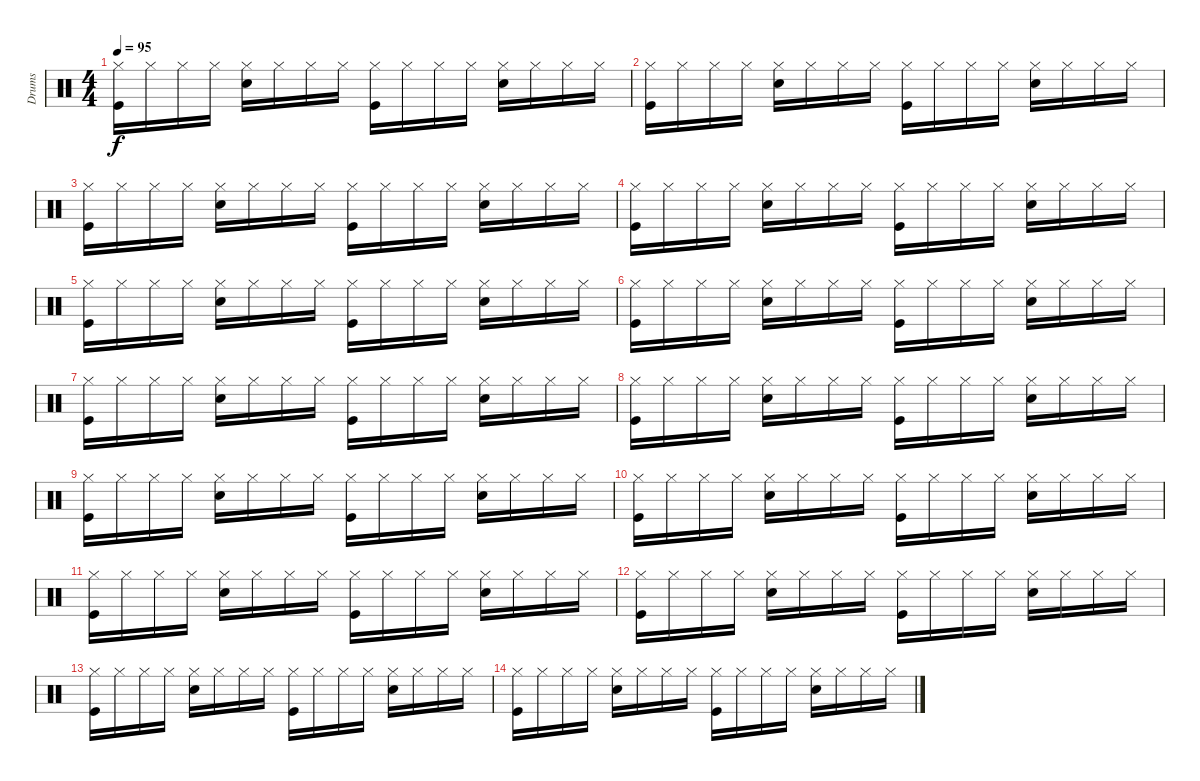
\track ("Drums" "Drums") {instrument percussion}
\staff {score}
\articulation defaults
\ts (4 4)
\tempo 95
\clef neutral
\ks c
("Hi-Hat (closed)" "Kick (hit)").16{dy f} "Hi-Hat (closed)".16 "Hi-Hat (closed)".16 "Hi-Hat (closed)".16 ("Hi-Hat (closed)" "Snare (hit) 2").16 "Hi-Hat (closed)".16 "Hi-Hat (closed)".16 "Hi-Hat (closed)".16 ("Hi-Hat (closed)" "Kick (hit)").16 "Hi-Hat (closed)".16 "Hi-Hat (closed)".16 "Hi-Hat (closed)".16 ("Hi-Hat (closed)" "Snare (hit) 2").16 "Hi-Hat (closed)".16 "Hi-Hat (closed)".16 "Hi-Hat (closed)".16 |
("Hi-Hat (closed)" "Kick (hit)").16 "Hi-Hat (closed)".16 "Hi-Hat (closed)".16 "Hi-Hat (closed)".16 ("Hi-Hat (closed)" "Snare (hit) 2").16 "Hi-Hat (closed)".16 "Hi-Hat (closed)".16 "Hi-Hat (closed)".16 ("Hi-Hat (closed)" "Kick (hit)").16 "Hi-Hat (closed)".16 "Hi-Hat (closed)".16 "Hi-Hat (closed)".16 ("Hi-Hat (closed)" "Snare (hit) 2").16 "Hi-Hat (closed)".16 "Hi-Hat (closed)".16 "Hi-Hat (closed)".16 |
("Hi-Hat (closed)" "Kick (hit)").16 "Hi-Hat (closed)".16 "Hi-Hat (closed)".16 "Hi-Hat (closed)".16 ("Hi-Hat (closed)" "Snare (hit) 2").16 "Hi-Hat (closed)".16 "Hi-Hat (closed)".16 "Hi-Hat (closed)".16 ("Hi-Hat (closed)" "Kick (hit)").16 "Hi-Hat (closed)".16 "Hi-Hat (closed)".16 "Hi-Hat (closed)".16 ("Hi-Hat (closed)" "Snare (hit) 2").16 "Hi-Hat (closed)".16 "Hi-Hat (closed)".16 "Hi-Hat (closed)".16 |
("Hi-Hat (closed)" "Kick (hit)").16 "Hi-Hat (closed)".16 "Hi-Hat (closed)".16 "Hi-Hat (closed)".16 ("Hi-Hat (closed)" "Snare (hit) 2").16 "Hi-Hat (closed)".16 "Hi-Hat (closed)".16 "Hi-Hat (closed)".16 ("Hi-Hat (closed)" "Kick (hit)").16 "Hi-Hat (closed)".16 "Hi-Hat (closed)".16 "Hi-Hat (closed)".16 ("Hi-Hat (closed)" "Snare (hit) 2").16 "Hi-Hat (closed)".16 "Hi-Hat (closed)".16 "Hi-Hat (closed)".16 |
("Hi-Hat (closed)" "Kick (hit)").16 "Hi-Hat (closed)".16 "Hi-Hat (closed)".16 "Hi-Hat (closed)".16 ("Hi-Hat (closed)" "Snare (hit) 2").16 "Hi-Hat (closed)".16 "Hi-Hat (closed)".16 "Hi-Hat (closed)".16 ("Hi-Hat (closed)" "Kick (hit)").16 "Hi-Hat (closed)".16 "Hi-Hat (closed)".16 "Hi-Hat (closed)".16 ("Hi-Hat (closed)" "Snare (hit) 2").16 "Hi-Hat (closed)".16 "Hi-Hat (closed)".16 "Hi-Hat (closed)".16 |
("Hi-Hat (closed)" "Kick (hit)").16 "Hi-Hat (closed)".16 "Hi-Hat (closed)".16 "Hi-Hat (closed)".16 ("Hi-Hat (closed)" "Snare (hit) 2").16 "Hi-Hat (closed)".16 "Hi-Hat (closed)".16 "Hi-Hat (closed)".16 ("Hi-Hat (closed)" "Kick (hit)").16 "Hi-Hat (closed)".16 "Hi-Hat (closed)".16 "Hi-Hat (closed)".16 ("Hi-Hat (closed)" "Snare (hit) 2").16 "Hi-Hat (closed)".16 "Hi-Hat (closed)".16 "Hi-Hat (closed)".16 |
("Hi-Hat (closed)" "Kick (hit)").16 "Hi-Hat (closed)".16 "Hi-Hat (closed)".16 "Hi-Hat (closed)".16 ("Hi-Hat (closed)" "Snare (hit) 2").16 "Hi-Hat (closed)".16 "Hi-Hat (closed)".16 "Hi-Hat (closed)".16 ("Hi-Hat (closed)" "Kick (hit)").16 "Hi-Hat (closed)".16 "Hi-Hat (closed)".16 "Hi-Hat (closed)".16 ("Hi-Hat (closed)" "Snare (hit) 2").16 "Hi-Hat (closed)".16 "Hi-Hat (closed)".16 "Hi-Hat (closed)".16 |
("Hi-Hat (closed)" "Kick (hit)").16 "Hi-Hat (closed)".16 "Hi-Hat (closed)".16 "Hi-Hat (closed)".16 ("Hi-Hat (closed)" "Snare (hit) 2").16 "Hi-Hat (closed)".16 "Hi-Hat (closed)".16 "Hi-Hat (closed)".16 ("Hi-Hat (closed)" "Kick (hit)").16 "Hi-Hat (closed)".16 "Hi-Hat (closed)".16 "Hi-Hat (closed)".16 ("Hi-Hat (closed)" "Snare (hit) 2").16 "Hi-Hat (closed)".16 "Hi-Hat (closed)".16 "Hi-Hat (closed)".16 |
("Hi-Hat (closed)" "Kick (hit)").16 "Hi-Hat (closed)".16 "Hi-Hat (closed)".16 "Hi-Hat (closed)".16 ("Hi-Hat (closed)" "Snare (hit) 2").16 "Hi-Hat (closed)".16 "Hi-Hat (closed)".16 "Hi-Hat (closed)".16 ("Hi-Hat (closed)" "Kick (hit)").16 "Hi-Hat (closed)".16 "Hi-Hat (closed)".16 "Hi-Hat (closed)".16 ("Hi-Hat (closed)" "Snare (hit) 2").16 "Hi-Hat (closed)".16 "Hi-Hat (closed)".16 "Hi-Hat (closed)".16 |
("Hi-Hat (closed)" "Kick (hit)").16 "Hi-Hat (closed)".16 "Hi-Hat (closed)".16 "Hi-Hat (closed)".16 ("Hi-Hat (closed)" "Snare (hit) 2").16 "Hi-Hat (closed)".16 "Hi-Hat (closed)".16 "Hi-Hat (closed)".16 ("Hi-Hat (closed)" "Kick (hit)").16 "Hi-Hat (closed)".16 "Hi-Hat (closed)".16 "Hi-Hat (closed)".16 ("Hi-Hat (closed)" "Snare (hit) 2").16 "Hi-Hat (closed)".16 "Hi-Hat (closed)".16 "Hi-Hat (closed)".16 |
("Hi-Hat (closed)" "Kick (hit)").16 "Hi-Hat (closed)".16 "Hi-Hat (closed)".16 "Hi-Hat (closed)".16 ("Hi-Hat (closed)" "Snare (hit) 2").16 "Hi-Hat (closed)".16 "Hi-Hat (closed)".16 "Hi-Hat (closed)".16 ("Hi-Hat (closed)" "Kick (hit)").16 "Hi-Hat (closed)".16 "Hi-Hat (closed)".16 "Hi-Hat (closed)".16 ("Hi-Hat (closed)" "Snare (hit) 2").16 "Hi-Hat (closed)".16 "Hi-Hat (closed)".16 "Hi-Hat (closed)".16 |
("Hi-Hat (closed)" "Kick (hit)").16 "Hi-Hat (closed)".16 "Hi-Hat (closed)".16 "Hi-Hat (closed)".16 ("Hi-Hat (closed)" "Snare (hit) 2").16 "Hi-Hat (closed)".16 "Hi-Hat (closed)".16 "Hi-Hat (closed)".16 ("Hi-Hat (closed)" "Kick (hit)").16 "Hi-Hat (closed)".16 "Hi-Hat (closed)".16 "Hi-Hat (closed)".16 ("Hi-Hat (closed)" "Snare (hit) 2").16 "Hi-Hat (closed)".16 "Hi-Hat (closed)".16 "Hi-Hat (closed)".16 |
("Hi-Hat (closed)" "Kick (hit)").16 "Hi-Hat (closed)".16 "Hi-Hat (closed)".16 "Hi-Hat (closed)".16 ("Hi-Hat (closed)" "Snare (hit) 2").16 "Hi-Hat (closed)".16 "Hi-Hat (closed)".16 "Hi-Hat (closed)".16 ("Hi-Hat (closed)" "Kick (hit)").16 "Hi-Hat (closed)".16 "Hi-Hat (closed)".16 "Hi-Hat (closed)".16 ("Hi-Hat (closed)" "Snare (hit) 2").16 "Hi-Hat (closed)".16 "Hi-Hat (closed)".16 "Hi-Hat (closed)".16 |
("Hi-Hat (closed)" "Kick (hit)").16 "Hi-Hat (closed)".16 "Hi-Hat (closed)".16 "Hi-Hat (closed)".16 ("Hi-Hat (closed)" "Snare (hit) 2").16 "Hi-Hat (closed)".16 "Hi-Hat (closed)".16 "Hi-Hat (closed)".16 ("Hi-Hat (closed)" "Kick (hit)").16 "Hi-Hat (closed)".16 "Hi-Hat (closed)".16 "Hi-Hat (closed)".16 ("Hi-Hat (closed)" "Snare (hit) 2").16 "Hi-Hat (closed)".16 "Hi-Hat (closed)".16 "Hi-Hat (closed)".16
